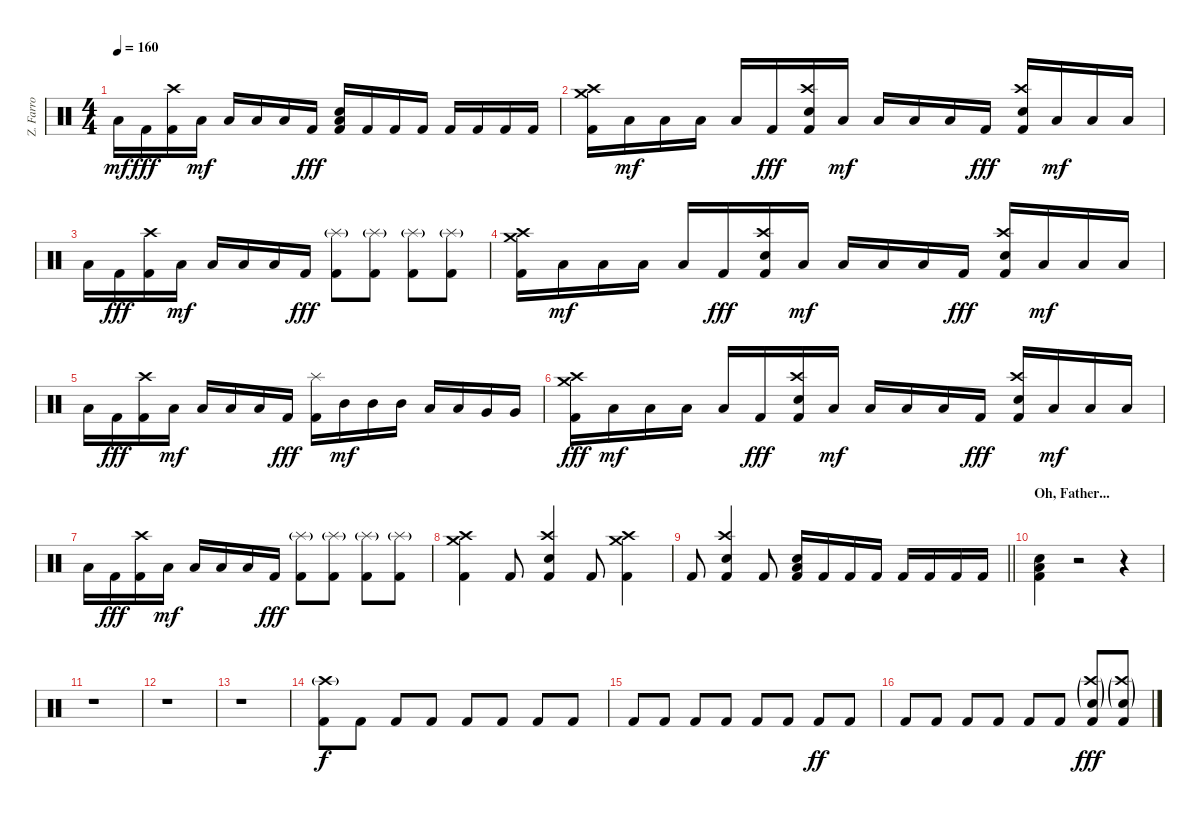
\track ("Z. Farro" "Z. Farro") {instrument percussion}
\staff {score}
\articulation defaults
\ts (4 4)
\tempo 160
\clef neutral
\ks c "Low Tom (hit)".16{dy mf} "Kick (hit) 2".16{dy fff}
("Crash high (hit)" "Kick (hit) 2").16 "Low Tom (hit)".16{dy mf} "Low Tom (hit)".16 "Low Tom (hit)".16 "Low Tom (hit)".16 "Kick (hit) 2".16{dy fff} ("Electric Snare (hit)" "Low Tom (hit)" "Kick (hit) 2").16 "Kick (hit) 2".16 "Kick (hit) 2".16 "Kick (hit) 2".16 "Kick (hit) 2".16 "Kick (hit) 2".16 "Kick (hit) 2".16 "Kick (hit) 2".16 |
("Crash high (hit)" "Crash medium (hit)" "Kick (hit) 2").16 "Low Tom (hit)".16{dy mf} "Low Tom (hit)".16 "Low Tom (hit)".16 "Low Tom (hit)".16 "Kick (hit) 2".16{dy fff} ("Crash high (hit)" "Electric Snare (hit)" "Kick (hit) 2").16 "Low Tom (hit)".16{dy mf} "Low Tom (hit)".16 "Low Tom (hit)".16 "Low Tom (hit)".16 "Kick (hit) 2".16{dy fff} ("Crash high (hit)" "Electric Snare (hit)" "Kick (hit) 2").16 "Low Tom (hit)".16{dy mf} "Low Tom (hit)".16 "Low Tom (hit)".16 |
"Low Tom (hit)".16 "Kick (hit) 2".16{dy fff} ("Crash high (hit)" "Kick (hit) 2").16 "Low Tom (hit)".16{dy mf} "Low Tom (hit)".16 "Low Tom (hit)".16 "Low Tom (hit)".16 "Kick (hit) 2".16{dy fff} ("Splash (hit)"{g} "Kick (hit) 2").8 ("Splash (hit)"{g} "Kick (hit) 2").8 ("Splash (hit)"{g} "Kick (hit) 2").8 ("Splash (hit)"{g} "Kick (hit) 2").8 |
("Crash high (hit)" "Crash medium (hit)" "Kick (hit) 2").16 "Low Tom (hit)".16{dy mf} "Low Tom (hit)".16 "Low Tom (hit)".16 "Low Tom (hit)".16 "Kick (hit) 2".16{dy fff} ("Crash high (hit)" "Electric Snare (hit)" "Kick (hit) 2").16 "Low Tom (hit)".16{dy mf} "Low Tom (hit)".16 "Low Tom (hit)".16 "Low Tom (hit)".16 "Kick (hit) 2".16{dy fff} ("Crash high (hit)" "Electric Snare (hit)" "Kick (hit) 2").16 "Low Tom (hit)".16{dy mf} "Low Tom (hit)".16 "Low Tom (hit)".16 |
"Low Tom (hit)".16 "Kick (hit) 2".16{dy fff} ("Crash high (hit)" "Kick (hit) 2").16 "Low Tom (hit)".16{dy mf} "Low Tom (hit)".16 "Low Tom (hit)".16 "Low Tom (hit)".16 "Kick (hit) 2".16{dy fff} ("Splash (hit)" "Kick (hit) 2").16 "Mid Tom (hit)".16{dy mf} "Mid Tom (hit)".16 "Mid Tom (hit)".16 "Low Tom (hit)".16 "Low Tom (hit)".16 "Very Low Tom (hit)".16 "Very Low Tom (hit)".16 |
("Crash high (hit)" "Crash medium (hit)" "Kick (hit) 2").16{dy fff} "Low Tom (hit)".16{dy mf} "Low Tom (hit)".16 "Low Tom (hit)".16 "Low Tom (hit)".16 "Kick (hit) 2".16{dy fff} ("Crash high (hit)" "Electric Snare (hit)" "Kick (hit) 2").16 "Low Tom (hit)".16{dy mf} "Low Tom (hit)".16 "Low Tom (hit)".16 "Low Tom (hit)".16 "Kick (hit) 2".16{dy fff} ("Crash high (hit)" "Electric Snare (hit)" "Kick (hit) 2").16 "Low Tom (hit)".16{dy mf} "Low Tom (hit)".16 "Low Tom (hit)".16 |
"Low Tom (hit)".16 "Kick (hit) 2".16{dy fff} ("Crash high (hit)" "Kick (hit) 2").16 "Low Tom (hit)".16{dy mf} "Low Tom (hit)".16 "Low Tom (hit)".16 "Low Tom (hit)".16 "Kick (hit) 2".16{dy fff} ("Splash (hit)"{g} "Kick (hit) 2").8 ("Splash (hit)"{g} "Kick (hit) 2").8 ("Splash (hit)"{g} "Kick (hit) 2").8 ("Splash (hit)"{g} "Kick (hit) 2").8 |
("Crash high (hit)" "Crash medium (hit)" "Kick (hit) 2").4 "Kick (hit) 2".8 ("Crash high (hit)" "Electric Snare (hit)" "Kick (hit) 2").4 "Kick (hit) 2".8 ("Crash high (hit)" "Crash medium (hit)" "Kick (hit) 2").4 |
\barLineRight lightlight "Kick (hit) 2".8
("Crash high (hit)" "Electric Snare (hit)" "Kick (hit) 2").4 "Kick (hit) 2".8 ("Electric Snare (hit)" "Low Tom (hit)" "Kick (hit) 2").16 "Kick (hit) 2".16 "Kick (hit) 2".16 "Kick (hit) 2".16 "Kick (hit) 2".16 "Kick (hit) 2".16 "Kick (hit) 2".16 "Kick (hit) 2".16 |
\section ("" "Oh, Father...")
("Electric Snare (hit)" "Low Tom (hit)" "Kick (hit) 2").4 r.2 r.4 |
r.1 |
r.1 |
r.1 |
("Crash high (hit)"{g} "Kick (hit) 2").8{dy f} "Kick (hit) 2".8 "Kick (hit) 2".8 "Kick (hit) 2".8 "Kick (hit) 2".8 "Kick (hit) 2".8 "Kick (hit) 2".8 "Kick (hit) 2".8 |
"Kick (hit) 2".8 "Kick (hit) 2".8 "Kick (hit) 2".8 "Kick (hit) 2".8 "Kick (hit) 2".8 "Kick (hit) 2".8 "Kick (hit) 2".8{dy ff} "Kick (hit) 2".8 |
"Kick (hit) 2".8 "Kick (hit) 2".8 "Kick (hit) 2".8 "Kick (hit) 2".8 "Kick (hit) 2".8 "Kick (hit) 2".8 ("Crash high (hit)"{g} "Electric Snare (hit)"{g} "Kick (hit) 2").8{dy fff} ("Crash high (hit)"{g} "Electric Snare (hit)"{g} "Kick (hit) 2").8
